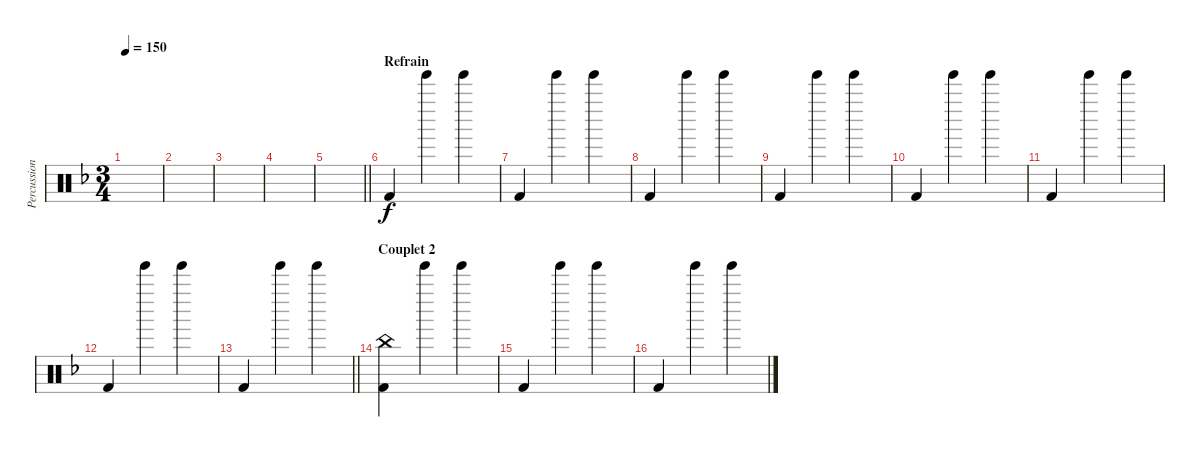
\track ("Percussions" "Percussion") {instrument percussion}
\staff {score}
\articulation defaults
\ts (3 4)
\tempo 150
\clef neutral
\ks f
|
|
|
|
\barLineRight lightlight
|
\section ("" "Refrain")
"Kick (hit) 2".4 "Tinkle Bell (hit)".4 "Tinkle Bell (hit)".4 |
"Kick (hit) 2".4 "Tinkle Bell (hit)".4 "Tinkle Bell (hit)".4 |
"Kick (hit) 2".4 "Tinkle Bell (hit)".4 "Tinkle Bell (hit)".4 |
"Kick (hit) 2".4 "Tinkle Bell (hit)".4 "Tinkle Bell (hit)".4 |
"Kick (hit) 2".4 "Tinkle Bell (hit)".4 "Tinkle Bell (hit)".4 |
"Kick (hit) 2".4 "Tinkle Bell (hit)".4 "Tinkle Bell (hit)".4 |
"Kick (hit) 2".4 "Tinkle Bell (hit)".4 "Tinkle Bell (hit)".4 |
\barLineRight lightlight "Kick (hit) 2".4 "Tinkle Bell (hit)".4 "Tinkle Bell (hit)".4
|
\section ("" "Couplet 2")
("China (hit)" "Kick (hit) 2").4 "Tinkle Bell (hit)".4 "Tinkle Bell (hit)".4 |
"Kick (hit) 2".4 "Tinkle Bell (hit)".4 "Tinkle Bell (hit)".4 |
"Kick (hit) 2".4 "Tinkle Bell (hit)".4 "Tinkle Bell (hit)".4
